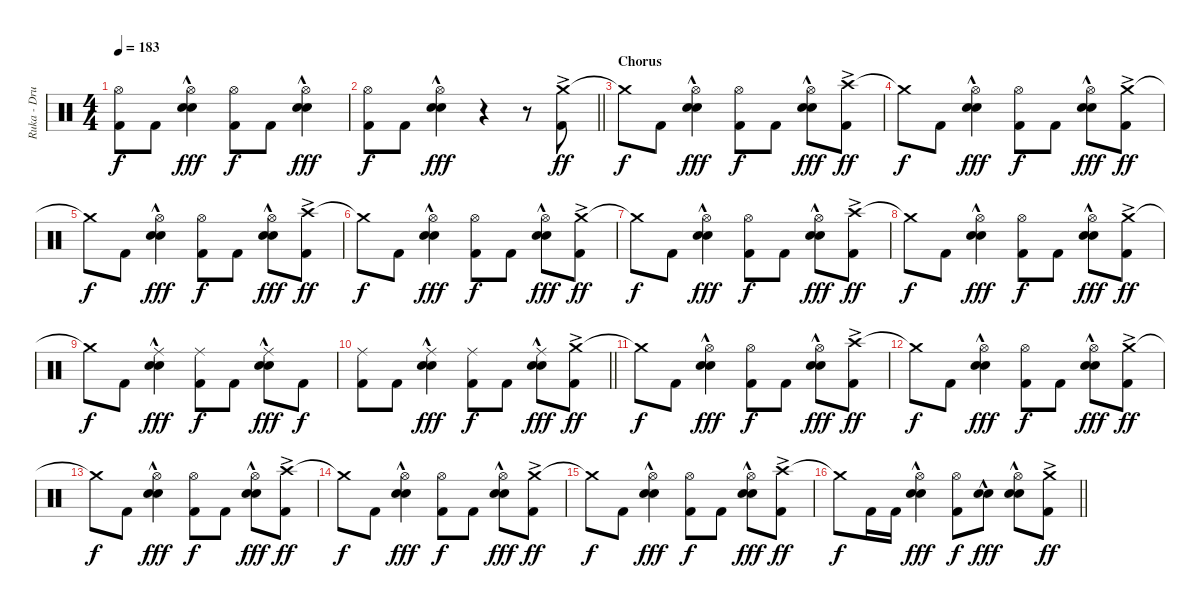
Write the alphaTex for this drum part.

\track ("Ruka - Drums" "Ruka - Dru") {instrument percussion}
\staff {score}
\articulation defaults
\ts (4 4)
\tempo 183
\clef neutral
\ks c
("Hi-Hat (open)" "Kick (hit) 2").8{dy f} "Kick (hit) 2".8 ("Hi-Hat (open)" "Electric Snare (hit)"{hac} "Snare (hit) 2"{hac}).4{dy fff} ("Hi-Hat (open)" "Kick (hit) 2").8{dy f} "Kick (hit) 2".8 ("Hi-Hat (open)" "Electric Snare (hit)"{hac} "Snare (hit) 2"{hac}).4{dy fff} |
\barLineRight lightlight
("Hi-Hat (open)" "Kick (hit) 2").8{dy f} "Kick (hit) 2".8 ("Hi-Hat (open)" "Electric Snare (hit)"{hac} "Snare (hit) 2"{hac}).4{dy fff} r.4 r.8 ("Crash medium (hit)"{ac} "Kick (hit) 2").8{dy ff} |
\section ("" "Chorus")
"Crash medium (hit)"{t}.8{dy f} "Kick (hit) 2".8 ("Hi-Hat (open)" "Electric Snare (hit)"{hac} "Snare (hit) 2"{hac}).4{dy fff} ("Hi-Hat (open)" "Kick (hit) 2").8{dy f} "Kick (hit) 2".8 ("Hi-Hat (open)" "Electric Snare (hit)"{hac} "Snare (hit) 2"{hac}).8{dy fff} ("Crash high (hit)"{ac} "Kick (hit) 2").8{dy ff} |
"Crash medium (hit)"{t}.8{dy f} "Kick (hit) 2".8 ("Hi-Hat (open)" "Electric Snare (hit)"{hac} "Snare (hit) 2"{hac}).4{dy fff} ("Hi-Hat (open)" "Kick (hit) 2").8{dy f} "Kick (hit) 2".8 ("Hi-Hat (open)" "Electric Snare (hit)"{hac} "Snare (hit) 2"{hac}).8{dy fff} ("Crash medium (hit)"{ac} "Kick (hit) 2").8{dy ff} |
"Crash medium (hit)"{t}.8{dy f} "Kick (hit) 2".8 ("Hi-Hat (open)" "Electric Snare (hit)"{hac} "Snare (hit) 2"{hac}).4{dy fff} ("Hi-Hat (open)" "Kick (hit) 2").8{dy f} "Kick (hit) 2".8 ("Hi-Hat (open)" "Electric Snare (hit)"{hac} "Snare (hit) 2"{hac}).8{dy fff} ("Crash high (hit)"{ac} "Kick (hit) 2").8{dy ff} |
"Crash medium (hit)"{t}.8{dy f} "Kick (hit) 2".8 ("Hi-Hat (open)" "Electric Snare (hit)"{hac} "Snare (hit) 2"{hac}).4{dy fff} ("Hi-Hat (open)" "Kick (hit) 2").8{dy f} "Kick (hit) 2".8 ("Hi-Hat (open)" "Electric Snare (hit)"{hac} "Snare (hit) 2"{hac}).8{dy fff} ("Crash medium (hit)"{ac} "Kick (hit) 2").8{dy ff} |
"Crash medium (hit)"{t}.8{dy f} "Kick (hit) 2".8 ("Hi-Hat (open)" "Electric Snare (hit)"{hac} "Snare (hit) 2"{hac}).4{dy fff} ("Hi-Hat (open)" "Kick (hit) 2").8{dy f} "Kick (hit) 2".8 ("Hi-Hat (open)" "Electric Snare (hit)"{hac} "Snare (hit) 2"{hac}).8{dy fff} ("Crash high (hit)"{ac} "Kick (hit) 2").8{dy ff} |
"Crash medium (hit)"{t}.8{dy f} "Kick (hit) 2".8 ("Hi-Hat (open)" "Electric Snare (hit)"{hac} "Snare (hit) 2"{hac}).4{dy fff} ("Hi-Hat (open)" "Kick (hit) 2").8{dy f} "Kick (hit) 2".8 ("Hi-Hat (open)" "Electric Snare (hit)"{hac} "Snare (hit) 2"{hac}).8{dy fff} ("Crash medium (hit)"{ac} "Kick (hit) 2").8{dy ff} |
"Crash medium (hit)"{t}.8{dy f} "Kick (hit) 2".8 ("Ride (middle)" "Electric Snare (hit)"{hac} "Snare (hit) 2"{hac}).4{dy fff} ("Ride (middle)" "Kick (hit) 2").8{dy f} "Kick (hit) 2".8 ("Ride (middle)" "Electric Snare (hit)"{hac} "Snare (hit) 2"{hac}).8{dy fff} "Kick (hit) 2".8{dy f} |
\barLineRight lightlight
("Ride (middle)" "Kick (hit) 2").8 "Kick (hit) 2".8 ("Ride (middle)" "Electric Snare (hit)"{hac} "Snare (hit) 2"{hac}).4{dy fff} ("Ride (middle)" "Kick (hit) 2").8{dy f} "Kick (hit) 2".8 ("Ride (middle)" "Electric Snare (hit)"{hac} "Snare (hit) 2"{hac}).8{dy fff} ("Crash medium (hit)"{ac} "Kick (hit) 2").8{dy ff} |
\section ("" "")
"Crash medium (hit)"{t}.8{dy f} "Kick (hit) 2".8 ("Hi-Hat (open)" "Electric Snare (hit)"{hac} "Snare (hit) 2"{hac}).4{dy fff} ("Hi-Hat (open)" "Kick (hit) 2").8{dy f} "Kick (hit) 2".8 ("Hi-Hat (open)" "Electric Snare (hit)"{hac} "Snare (hit) 2"{hac}).8{dy fff} ("Crash high (hit)"{ac} "Kick (hit) 2").8{dy ff} |
"Crash medium (hit)"{t}.8{dy f} "Kick (hit) 2".8 ("Hi-Hat (open)" "Electric Snare (hit)"{hac} "Snare (hit) 2"{hac}).4{dy fff} ("Hi-Hat (open)" "Kick (hit) 2").8{dy f} "Kick (hit) 2".8 ("Hi-Hat (open)" "Electric Snare (hit)"{hac} "Snare (hit) 2"{hac}).8{dy fff} ("Crash medium (hit)"{ac} "Kick (hit) 2").8{dy ff} |
"Crash medium (hit)"{t}.8{dy f} "Kick (hit) 2".8 ("Hi-Hat (open)" "Electric Snare (hit)"{hac} "Snare (hit) 2"{hac}).4{dy fff} ("Hi-Hat (open)" "Kick (hit) 2").8{dy f} "Kick (hit) 2".8 ("Hi-Hat (open)" "Electric Snare (hit)"{hac} "Snare (hit) 2"{hac}).8{dy fff} ("Crash high (hit)"{ac} "Kick (hit) 2").8{dy ff} |
"Crash medium (hit)"{t}.8{dy f} "Kick (hit) 2".8 ("Hi-Hat (open)" "Electric Snare (hit)"{hac} "Snare (hit) 2"{hac}).4{dy fff} ("Hi-Hat (open)" "Kick (hit) 2").8{dy f} "Kick (hit) 2".8 ("Hi-Hat (open)" "Electric Snare (hit)"{hac} "Snare (hit) 2"{hac}).8{dy fff} ("Crash medium (hit)"{ac} "Kick (hit) 2").8{dy ff} |
"Crash medium (hit)"{t}.8{dy f} "Kick (hit) 2".8 ("Hi-Hat (open)" "Electric Snare (hit)"{hac} "Snare (hit) 2"{hac}).4{dy fff} ("Hi-Hat (open)" "Kick (hit) 2").8{dy f} "Kick (hit) 2".8 ("Hi-Hat (open)" "Electric Snare (hit)"{hac} "Snare (hit) 2"{hac}).8{dy fff} ("Crash high (hit)"{ac} "Kick (hit) 2").8{dy ff} |
\barLineRight lightlight "Crash medium (hit)"{t}.8{dy f} "Kick (hit) 2".16 "Kick (hit) 2".16
("Hi-Hat (open)" "Electric Snare (hit)"{hac} "Snare (hit) 2"{hac}).4{dy fff} ("Hi-Hat (open)" "Kick (hit) 2").8{dy f} ("Electric Snare (hit)"{hac} "Snare (hit) 2"{hac}).8{dy fff} ("Hi-Hat (open)" "Electric Snare (hit)"{hac} "Snare (hit) 2"{hac}).8 ("Crash medium (hit)"{ac} "Kick (hit) 2").8{dy ff}
